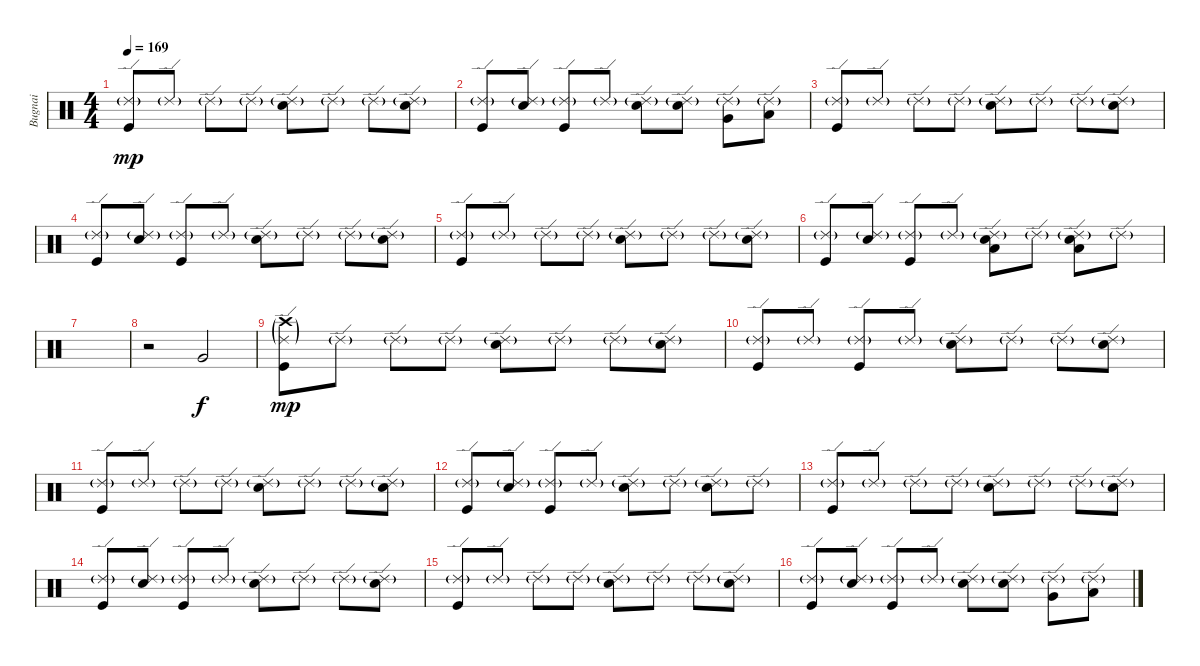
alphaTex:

\track ("Bugnai" "Bugnai") {instrument percussion}
\staff {score}
\articulation defaults
\ts (4 4)
\tempo 169
\clef neutral
\ks c
("Ride (edge) 2"{g} "Kick (hit)").8{dy mp} "Ride (edge) 2"{g}.8 "Ride (edge) 2"{g}.8 "Ride (edge) 2"{g}.8 ("Ride (edge) 2"{g} "Snare (hit) 2").8 "Ride (edge) 2"{g}.8 "Ride (edge) 2"{g}.8 ("Ride (edge) 2"{g} "Snare (hit) 2").8 |
("Ride (edge) 2"{g} "Kick (hit)").8 ("Ride (edge) 2"{g} "Snare (hit) 2").8 ("Ride (edge) 2"{g} "Kick (hit)").8 "Ride (edge) 2"{g}.8 ("Ride (edge) 2"{g} "Snare (hit) 2").8 ("Ride (edge) 2"{g} "Snare (hit) 2").8 ("Ride (edge) 2"{g} "Very Low Tom (hit)").8 ("Ride (edge) 2"{g} "Low Floor Tom (hit)").8 |
("Ride (edge) 2"{g} "Kick (hit)").8 "Ride (edge) 2"{g}.8 "Ride (edge) 2"{g}.8 "Ride (edge) 2"{g}.8 ("Ride (edge) 2"{g} "Snare (hit) 2").8 "Ride (edge) 2"{g}.8 "Ride (edge) 2"{g}.8 ("Ride (edge) 2"{g} "Snare (hit) 2").8 |
("Ride (edge) 2"{g} "Kick (hit)").8 ("Ride (edge) 2"{g} "Snare (hit) 2").8 ("Ride (edge) 2"{g} "Kick (hit)").8 "Ride (edge) 2"{g}.8 ("Ride (edge) 2"{g} "Snare (hit) 2").8 "Ride (edge) 2"{g}.8 "Ride (edge) 2"{g}.8 ("Ride (edge) 2"{g} "Snare (hit) 2").8 |
("Ride (edge) 2"{g} "Kick (hit)").8 "Ride (edge) 2"{g}.8 "Ride (edge) 2"{g}.8 "Ride (edge) 2"{g}.8 ("Ride (edge) 2"{g} "Snare (hit) 2").8 "Ride (edge) 2"{g}.8 "Ride (edge) 2"{g}.8 ("Ride (edge) 2"{g} "Snare (hit) 2").8 |
("Ride (edge) 2"{g} "Kick (hit)").8 ("Ride (edge) 2"{g} "Snare (hit) 2").8 ("Ride (edge) 2"{g} "Kick (hit)").8 "Ride (edge) 2"{g}.8 ("Ride (edge) 2"{g} "Snare (hit) 2" "Low Tom (hit)").8 "Ride (edge) 2"{g}.8 ("Ride (edge) 2"{g} "Snare (hit) 2" "Low Tom (hit)").8 "Ride (edge) 2"{g}.8 |
|
r.2 "Very Low Tom (hit)".2{dy f} |
("Ride (edge) 2"{g} "Crash high (hit)"{g} "Kick (hit)").8{dy mp} "Ride (edge) 2"{g}.8 "Ride (edge) 2"{g}.8 "Ride (edge) 2"{g}.8 ("Ride (edge) 2"{g} "Snare (hit) 2").8 "Ride (edge) 2"{g}.8 "Ride (edge) 2"{g}.8 ("Ride (edge) 2"{g} "Snare (hit) 2").8 |
("Ride (edge) 2"{g} "Kick (hit)").8 "Ride (edge) 2"{g}.8 ("Ride (edge) 2"{g} "Kick (hit)").8 "Ride (edge) 2"{g}.8 ("Ride (edge) 2"{g} "Snare (hit) 2").8 "Ride (edge) 2"{g}.8 "Ride (edge) 2"{g}.8 ("Ride (edge) 2"{g} "Snare (hit) 2").8 |
("Ride (edge) 2"{g} "Kick (hit)").8 "Ride (edge) 2"{g}.8 "Ride (edge) 2"{g}.8 "Ride (edge) 2"{g}.8 ("Ride (edge) 2"{g} "Snare (hit) 2").8 "Ride (edge) 2"{g}.8 "Ride (edge) 2"{g}.8 ("Ride (edge) 2"{g} "Snare (hit) 2").8 |
("Ride (edge) 2"{g} "Kick (hit)").8 ("Ride (edge) 2"{g} "Snare (hit) 2").8 ("Ride (edge) 2"{g} "Kick (hit)").8 "Ride (edge) 2"{g}.8 ("Ride (edge) 2"{g} "Snare (hit) 2").8 "Ride (edge) 2"{g}.8 ("Ride (edge) 2"{g} "Snare (hit) 2").8 "Ride (edge) 2"{g}.8 |
("Ride (edge) 2"{g} "Kick (hit)").8 "Ride (edge) 2"{g}.8 "Ride (edge) 2"{g}.8 "Ride (edge) 2"{g}.8 ("Ride (edge) 2"{g} "Snare (hit) 2").8 "Ride (edge) 2"{g}.8 "Ride (edge) 2"{g}.8 ("Ride (edge) 2"{g} "Snare (hit) 2").8 |
("Ride (edge) 2"{g} "Kick (hit)").8 ("Ride (edge) 2"{g} "Snare (hit) 2").8 ("Ride (edge) 2"{g} "Kick (hit)").8 "Ride (edge) 2"{g}.8 ("Ride (edge) 2"{g} "Snare (hit) 2").8 "Ride (edge) 2"{g}.8 "Ride (edge) 2"{g}.8 ("Ride (edge) 2"{g} "Snare (hit) 2").8 |
("Ride (edge) 2"{g} "Kick (hit)").8 "Ride (edge) 2"{g}.8 "Ride (edge) 2"{g}.8 "Ride (edge) 2"{g}.8 ("Ride (edge) 2"{g} "Snare (hit) 2").8 "Ride (edge) 2"{g}.8 "Ride (edge) 2"{g}.8 ("Ride (edge) 2"{g} "Snare (hit) 2").8 |
("Ride (edge) 2"{g} "Kick (hit)").8 ("Ride (edge) 2"{g} "Snare (hit) 2").8 ("Ride (edge) 2"{g} "Kick (hit)").8 "Ride (edge) 2"{g}.8 ("Ride (edge) 2"{g} "Snare (hit) 2").8 ("Ride (edge) 2"{g} "Snare (hit) 2").8 ("Ride (edge) 2"{g} "Very Low Tom (hit)").8 ("Ride (edge) 2"{g} "Low Floor Tom (hit)").8
